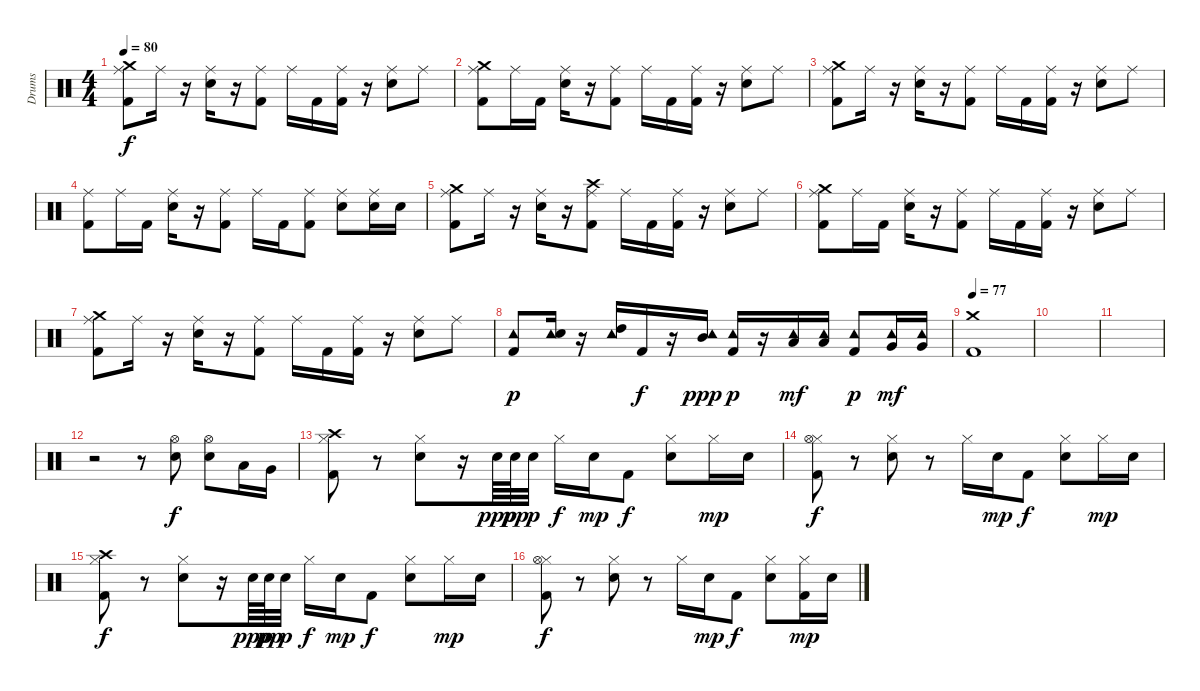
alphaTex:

\track ("Drums" "Drums") {instrument percussion}
\staff {score}
\articulation defaults
\ts (4 4)
\tempo 80
\clef neutral
\ks c
("Ride (middle)" "Crash medium (hit)" "Kick (hit) 2").8{dy f} "Ride (middle)".16 r.16 ("Ride (middle)" "Electric Snare (hit)").16 r.16 ("Ride (middle)" "Kick (hit) 2").8 "Ride (middle)".16 "Kick (hit) 2".16 ("Ride (middle)" "Kick (hit) 2").16 r.16 ("Ride (middle)" "Electric Snare (hit)").8 "Ride (middle)".8 |
("Ride (middle)" "Crash medium (hit)" "Kick (hit) 2").8 "Ride (middle)".16 "Kick (hit) 2".16 ("Ride (middle)" "Electric Snare (hit)").16 r.16 ("Ride (middle)" "Kick (hit) 2").8 "Ride (middle)".16 "Kick (hit) 2".16 ("Ride (middle)" "Kick (hit) 2").16 r.16 ("Ride (middle)" "Electric Snare (hit)").8 "Ride (middle)".8 |
("Ride (middle)" "Crash medium (hit)" "Kick (hit) 2").8 "Ride (middle)".16 r.16 ("Ride (middle)" "Electric Snare (hit)").16 r.16 ("Ride (middle)" "Kick (hit) 2").8 "Ride (middle)".16 "Kick (hit) 2".16 ("Ride (middle)" "Kick (hit) 2").16 r.16 ("Ride (middle)" "Electric Snare (hit)").8 "Ride (middle)".8 |
("Ride (middle)" "Kick (hit) 2").8 "Ride (middle)".16 "Kick (hit) 2".16 ("Ride (middle)" "Electric Snare (hit)").16 r.16 ("Ride (middle)" "Kick (hit) 2").8 "Ride (middle)".16 "Kick (hit) 2".16 ("Ride (middle)" "Kick (hit) 2").8 ("Ride (middle)" "Electric Snare (hit)").8 ("Ride (middle)" "Electric Snare (hit)").16 "Electric Snare (hit)".16 |
("Ride (middle)" "Crash medium (hit)" "Kick (hit) 2").8 "Ride (middle)".16 r.16 ("Ride (middle)" "Electric Snare (hit)").16 r.16 ("Ride (middle)" "Crash high (hit)" "Kick (hit) 2").8 "Ride (middle)".16 "Kick (hit) 2".16 ("Ride (middle)" "Kick (hit) 2").16 r.16 ("Ride (middle)" "Electric Snare (hit)").8 "Ride (middle)".8 |
("Ride (middle)" "Crash medium (hit)" "Kick (hit) 2").8 "Ride (middle)".16 "Kick (hit) 2".16 ("Ride (middle)" "Electric Snare (hit)").16 r.16 ("Ride (middle)" "Kick (hit) 2").8 "Ride (middle)".16 "Kick (hit) 2".16 ("Ride (middle)" "Kick (hit) 2").16 r.16 ("Ride (middle)" "Electric Snare (hit)").8 "Ride (middle)".8 |
("Ride (middle)" "Crash medium (hit)" "Kick (hit) 2").8 "Ride (middle)".16 r.16 ("Ride (middle)" "Electric Snare (hit)").16 r.16 ("Ride (middle)" "Kick (hit) 2").8 "Ride (middle)".16 "Kick (hit) 2".16 ("Ride (middle)" "Kick (hit) 2").16 r.16 ("Ride (middle)" "Electric Snare (hit)").8 "Ride (middle)".8 |
("Tambourine (hit)" "Kick (hit) 2").8{dy p} ("Tambourine (hit)" "Electric Snare (hit)").16 r.16 ("Tambourine (hit)" "High Tom (hit)").16 "Kick (hit) 2".16{dy f} r.16 ("Tambourine (hit)" "Mid Tom (hit)").16{dy ppp} ("Tambourine (hit)" "Kick (hit) 2").16{dy p} r.16 ("Tambourine (hit)" "Low Tom (hit)").16{dy mf} ("Tambourine (hit)" "Low Tom (hit)").16 ("Tambourine (hit)" "Kick (hit) 2").8{dy p} ("Tambourine (hit)" "Very Low Tom (hit)").16{dy mf} ("Tambourine (hit)" "Very Low Tom (hit)").16 |
\tempo 77
("Crash medium (hit)" "Kick (hit) 2").1 |
|
|
r.2 r.8 ("Hi-Hat (open)" "Electric Snare (hit)").8{dy f} ("Hi-Hat (open)" "Electric Snare (hit)").8 "Low Tom (hit)".16 "Very Low Tom (hit)".16 |
("Hi-Hat (closed)" "Crash high (hit)" "Kick (hit) 2").8 r.8 ("Hi-Hat (closed)" "Electric Snare (hit)").8 r.16 "Electric Snare (hit)".64{dy ppp} "Electric Snare (hit)".64{dy pp} "Electric Snare (hit)".32{dy p} "Hi-Hat (closed)".16{dy f} "Electric Snare (hit)".16{dy mp} "Kick (hit) 2".8{dy f} ("Hi-Hat (closed)" "Electric Snare (hit)").8 "Hi-Hat (closed)".16{dy mp} "Electric Snare (hit)".16 |
("Hi-Hat (closed)" "Hi-Hat (open)" "Kick (hit) 2").8{dy f} r.8 ("Hi-Hat (closed)" "Electric Snare (hit)").8 r.8 "Hi-Hat (closed)".16 "Electric Snare (hit)".16{dy mp} "Kick (hit) 2".8{dy f} ("Hi-Hat (closed)" "Electric Snare (hit)").8 "Hi-Hat (closed)".16{dy mp} "Electric Snare (hit)".16 |
("Hi-Hat (closed)" "Crash high (hit)" "Kick (hit) 2").8{dy f} r.8 ("Hi-Hat (closed)" "Electric Snare (hit)").8 r.16 "Electric Snare (hit)".64{dy ppp} "Electric Snare (hit)".64{dy pp} "Electric Snare (hit)".32{dy p} "Hi-Hat (closed)".16{dy f} "Electric Snare (hit)".16{dy mp} "Kick (hit) 2".8{dy f} ("Hi-Hat (closed)" "Electric Snare (hit)").8 "Hi-Hat (closed)".16{dy mp} "Electric Snare (hit)".16 |
("Hi-Hat (closed)" "Hi-Hat (open)" "Kick (hit) 2").8{dy f} r.8 ("Hi-Hat (closed)" "Electric Snare (hit)").8 r.8 "Hi-Hat (closed)".16 "Electric Snare (hit)".16{dy mp} "Kick (hit) 2".8{dy f} ("Hi-Hat (closed)" "Electric Snare (hit)").8 ("Hi-Hat (closed)" "Kick (hit) 2").16{dy mp} "Electric Snare (hit)".16
